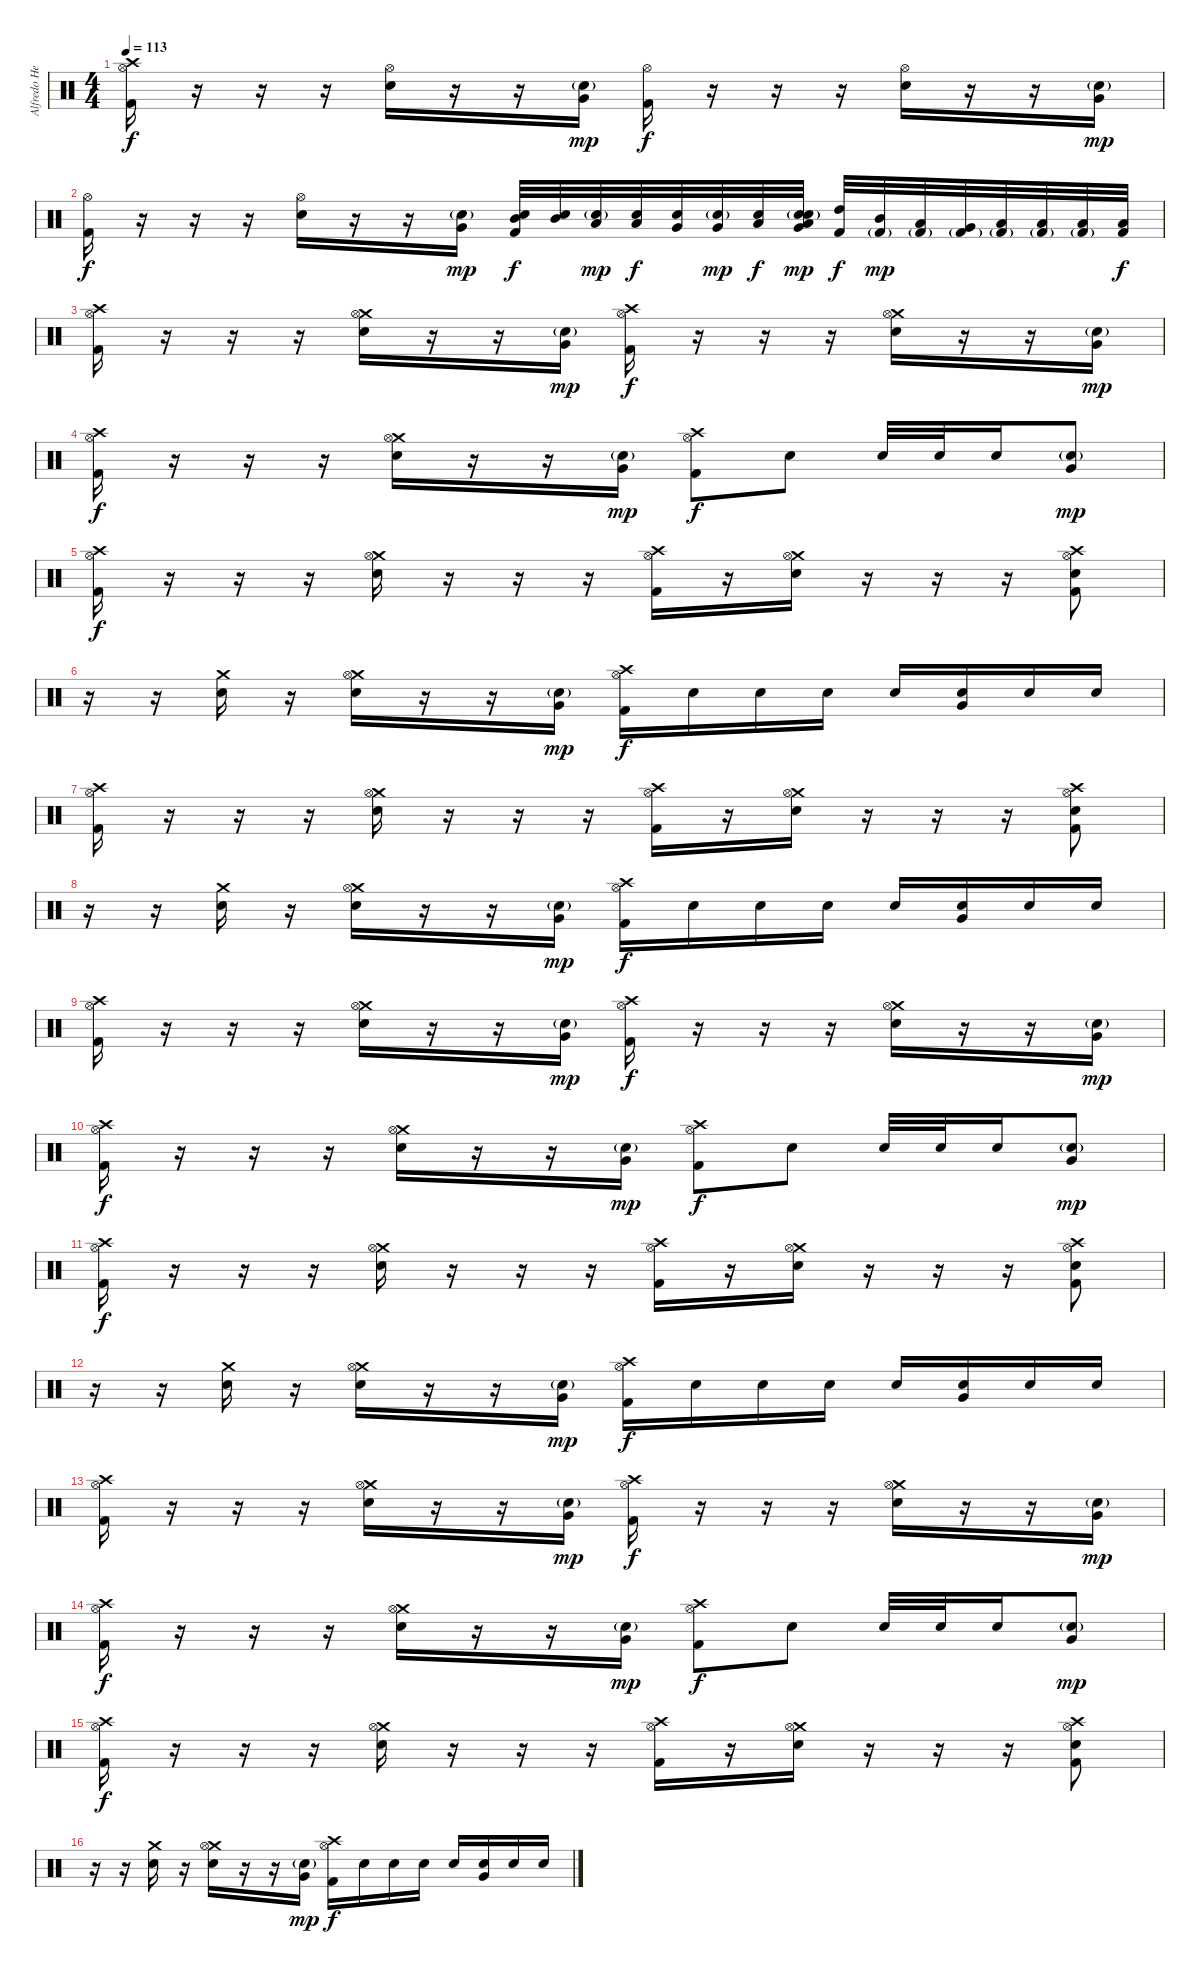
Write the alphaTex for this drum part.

\track ("Alfredo Hernández" "Alfredo He") {instrument percussion}
\staff {score}
\articulation defaults
\ts (4 4)
\tempo 113
\clef neutral
\ks c
("Crash high (hit)" "Hi-Hat (open)" "Kick (hit) 2").16{dy f} r.16 r.16 r.16 ("Electric Snare (hit)" "Hi-Hat (open)").16 r.16 r.16 ("Electric Snare (hit)"{g} "Very Low Tom (hit)").16{dy mp} ("Hi-Hat (open)" "Kick (hit) 2").16{dy f} r.16 r.16 r.16 ("Electric Snare (hit)" "Hi-Hat (open)").16 r.16 r.16 ("Electric Snare (hit)"{g} "Very Low Tom (hit)").16{dy mp} |
("Hi-Hat (open)" "Kick (hit) 2").16{dy f} r.16 r.16 r.16 ("Electric Snare (hit)" "Hi-Hat (open)").16 r.16 r.16 ("Electric Snare (hit)"{g} "Very Low Tom (hit)").16{dy mp} ("Mid Tom (hit)" "Electric Snare (hit)" "Kick (hit) 2").32{dy f} ("Mid Tom (hit)" "Electric Snare (hit)").32 ("Low Tom (hit)" "Electric Snare (hit)"{g}).32{dy mp} ("Low Tom (hit)" "Electric Snare (hit)").32{dy f} ("Very Low Tom (hit)" "Electric Snare (hit)").32 ("Very Low Tom (hit)" "Electric Snare (hit)"{g}).32{dy mp} ("Low Floor Tom (hit)" "Electric Snare (hit)").32{dy f} ("Low Floor Tom (hit)" "Electric Snare (hit)" "Electric Snare (hit)"{g} "Very Low Tom (hit)").32{dy mp} ("High Tom (hit)" "Kick (hit) 2").32{dy f} ("Mid Tom (hit)" "Kick (hit) 2"{g}).32{dy mp} ("Low Tom (hit)" "Kick (hit) 2"{g}).32 ("Very Low Tom (hit)" "Kick (hit) 2"{g}).32 ("Low Floor Tom (hit)" "Kick (hit) 2"{g}).32 ("Low Floor Tom (hit)" "Kick (hit) 2"{g}).32 ("Low Floor Tom (hit)" "Kick (hit) 2"{g}).32 ("Low Floor Tom (hit)" "Kick (hit) 2").32{dy f} |
("Crash high (hit)" "Hi-Hat (open)" "Kick (hit) 2").16 r.16 r.16 r.16 ("Crash medium (hit)" "Electric Snare (hit)" "Hi-Hat (open)").16 r.16 r.16 ("Electric Snare (hit)"{g} "Very Low Tom (hit)").16{dy mp} ("Crash high (hit)" "Hi-Hat (open)" "Kick (hit) 2").16{dy f} r.16 r.16 r.16 ("Crash medium (hit)" "Electric Snare (hit)" "Hi-Hat (open)").16 r.16 r.16 ("Electric Snare (hit)"{g} "Very Low Tom (hit)").16{dy mp} |
("Crash high (hit)" "Hi-Hat (open)" "Kick (hit) 2").16{dy f} r.16 r.16 r.16 ("Crash medium (hit)" "Electric Snare (hit)" "Hi-Hat (open)").16 r.16 r.16 ("Electric Snare (hit)"{g} "Very Low Tom (hit)").16{dy mp} ("Crash high (hit)" "Hi-Hat (open)" "Kick (hit) 2").8{dy f} "Electric Snare (hit)".8 "Electric Snare (hit)".32 "Electric Snare (hit)".32 "Electric Snare (hit)".16 ("Electric Snare (hit)"{g} "Very Low Tom (hit)").8{dy mp} |
("Crash high (hit)" "Hi-Hat (open)" "Kick (hit) 2").16{dy f} r.16 r.16 r.16 ("Crash medium (hit)" "Electric Snare (hit)" "Hi-Hat (open)").16 r.16 r.16 r.16 ("Crash high (hit)" "Hi-Hat (open)" "Kick (hit) 2").16 r.16 ("Crash medium (hit)" "Electric Snare (hit)" "Hi-Hat (open)").16 r.16 r.16 r.16 ("Crash high (hit)" "Electric Snare (hit)" "Hi-Hat (open)" "Kick (hit) 2").8 |
r.16 r.16 ("Crash medium (hit)" "Electric Snare (hit)").16 r.16 ("Crash medium (hit)" "Electric Snare (hit)" "Hi-Hat (open)").16 r.16 r.16 ("Electric Snare (hit)"{g} "Very Low Tom (hit)").16{dy mp} ("Crash high (hit)" "Hi-Hat (open)" "Kick (hit) 2").16{dy f} "Electric Snare (hit)".16 "Electric Snare (hit)".16 "Electric Snare (hit)".16 "Electric Snare (hit)".16 ("Electric Snare (hit)" "Very Low Tom (hit)").16 "Electric Snare (hit)".16 "Electric Snare (hit)".16 |
("Crash high (hit)" "Hi-Hat (open)" "Kick (hit) 2").16 r.16 r.16 r.16 ("Crash medium (hit)" "Electric Snare (hit)" "Hi-Hat (open)").16 r.16 r.16 r.16 ("Crash high (hit)" "Hi-Hat (open)" "Kick (hit) 2").16 r.16 ("Crash medium (hit)" "Electric Snare (hit)" "Hi-Hat (open)").16 r.16 r.16 r.16 ("Crash high (hit)" "Electric Snare (hit)" "Hi-Hat (open)" "Kick (hit) 2").8 |
r.16 r.16 ("Crash medium (hit)" "Electric Snare (hit)").16 r.16 ("Crash medium (hit)" "Electric Snare (hit)" "Hi-Hat (open)").16 r.16 r.16 ("Electric Snare (hit)"{g} "Very Low Tom (hit)").16{dy mp} ("Crash high (hit)" "Hi-Hat (open)" "Kick (hit) 2").16{dy f} "Electric Snare (hit)".16 "Electric Snare (hit)".16 "Electric Snare (hit)".16 "Electric Snare (hit)".16 ("Electric Snare (hit)" "Very Low Tom (hit)").16 "Electric Snare (hit)".16 "Electric Snare (hit)".16 |
("Crash high (hit)" "Hi-Hat (open)" "Kick (hit) 2").16 r.16 r.16 r.16 ("Crash medium (hit)" "Electric Snare (hit)" "Hi-Hat (open)").16 r.16 r.16 ("Electric Snare (hit)"{g} "Very Low Tom (hit)").16{dy mp} ("Crash high (hit)" "Hi-Hat (open)" "Kick (hit) 2").16{dy f} r.16 r.16 r.16 ("Crash medium (hit)" "Electric Snare (hit)" "Hi-Hat (open)").16 r.16 r.16 ("Electric Snare (hit)"{g} "Very Low Tom (hit)").16{dy mp} |
("Crash high (hit)" "Hi-Hat (open)" "Kick (hit) 2").16{dy f} r.16 r.16 r.16 ("Crash medium (hit)" "Electric Snare (hit)" "Hi-Hat (open)").16 r.16 r.16 ("Electric Snare (hit)"{g} "Very Low Tom (hit)").16{dy mp} ("Crash high (hit)" "Hi-Hat (open)" "Kick (hit) 2").8{dy f} "Electric Snare (hit)".8 "Electric Snare (hit)".32 "Electric Snare (hit)".32 "Electric Snare (hit)".16 ("Electric Snare (hit)"{g} "Very Low Tom (hit)").8{dy mp} |
("Crash high (hit)" "Hi-Hat (open)" "Kick (hit) 2").16{dy f} r.16 r.16 r.16 ("Crash medium (hit)" "Electric Snare (hit)" "Hi-Hat (open)").16 r.16 r.16 r.16 ("Crash high (hit)" "Hi-Hat (open)" "Kick (hit) 2").16 r.16 ("Crash medium (hit)" "Electric Snare (hit)" "Hi-Hat (open)").16 r.16 r.16 r.16 ("Crash high (hit)" "Electric Snare (hit)" "Hi-Hat (open)" "Kick (hit) 2").8 |
r.16 r.16 ("Crash medium (hit)" "Electric Snare (hit)").16 r.16 ("Crash medium (hit)" "Electric Snare (hit)" "Hi-Hat (open)").16 r.16 r.16 ("Electric Snare (hit)"{g} "Very Low Tom (hit)").16{dy mp} ("Crash high (hit)" "Hi-Hat (open)" "Kick (hit) 2").16{dy f} "Electric Snare (hit)".16 "Electric Snare (hit)".16 "Electric Snare (hit)".16 "Electric Snare (hit)".16 ("Electric Snare (hit)" "Very Low Tom (hit)").16 "Electric Snare (hit)".16 "Electric Snare (hit)".16 |
("Crash high (hit)" "Hi-Hat (open)" "Kick (hit) 2").16 r.16 r.16 r.16 ("Crash medium (hit)" "Electric Snare (hit)" "Hi-Hat (open)").16 r.16 r.16 ("Electric Snare (hit)"{g} "Very Low Tom (hit)").16{dy mp} ("Crash high (hit)" "Hi-Hat (open)" "Kick (hit) 2").16{dy f} r.16 r.16 r.16 ("Crash medium (hit)" "Electric Snare (hit)" "Hi-Hat (open)").16 r.16 r.16 ("Electric Snare (hit)"{g} "Very Low Tom (hit)").16{dy mp} |
("Crash high (hit)" "Hi-Hat (open)" "Kick (hit) 2").16{dy f} r.16 r.16 r.16 ("Crash medium (hit)" "Electric Snare (hit)" "Hi-Hat (open)").16 r.16 r.16 ("Electric Snare (hit)"{g} "Very Low Tom (hit)").16{dy mp} ("Crash high (hit)" "Hi-Hat (open)" "Kick (hit) 2").8{dy f} "Electric Snare (hit)".8 "Electric Snare (hit)".32 "Electric Snare (hit)".32 "Electric Snare (hit)".16 ("Electric Snare (hit)"{g} "Very Low Tom (hit)").8{dy mp} |
("Crash high (hit)" "Hi-Hat (open)" "Kick (hit) 2").16{dy f} r.16 r.16 r.16 ("Crash medium (hit)" "Electric Snare (hit)" "Hi-Hat (open)").16 r.16 r.16 r.16 ("Crash high (hit)" "Hi-Hat (open)" "Kick (hit) 2").16 r.16 ("Crash medium (hit)" "Electric Snare (hit)" "Hi-Hat (open)").16 r.16 r.16 r.16 ("Crash high (hit)" "Electric Snare (hit)" "Hi-Hat (open)" "Kick (hit) 2").8 |
r.16 r.16 ("Crash medium (hit)" "Electric Snare (hit)").16 r.16 ("Crash medium (hit)" "Electric Snare (hit)" "Hi-Hat (open)").16 r.16 r.16 ("Electric Snare (hit)"{g} "Very Low Tom (hit)").16{dy mp} ("Crash high (hit)" "Hi-Hat (open)" "Kick (hit) 2").16{dy f} "Electric Snare (hit)".16 "Electric Snare (hit)".16 "Electric Snare (hit)".16 "Electric Snare (hit)".16 ("Electric Snare (hit)" "Very Low Tom (hit)").16 "Electric Snare (hit)".16 "Electric Snare (hit)".16
